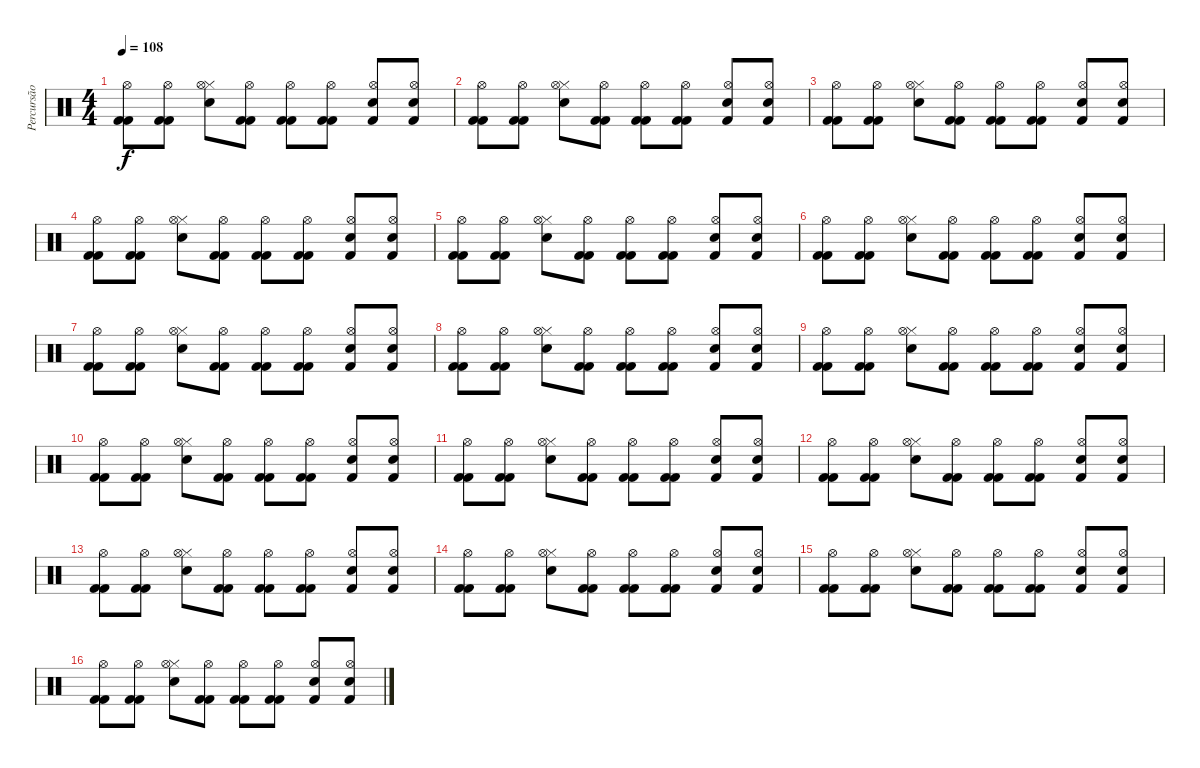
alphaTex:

\track ("Percursão" "Percursão") {instrument percussion}
\staff {score}
\articulation defaults
\ts (4 4)
\tempo 108
\clef neutral
\ks c
("Kick (hit) 2" "Kick (hit) 2" "Hi-Hat (open)").8{dy f} ("Kick (hit) 2" "Kick (hit) 2" "Hi-Hat (open)").8 ("Hi-Hat (closed)" "Snare (hit) 2" "Hi-Hat (open)").8 ("Kick (hit) 2" "Kick (hit) 2" "Hi-Hat (open)").8 ("Kick (hit) 2" "Kick (hit) 2" "Hi-Hat (open)").8 ("Kick (hit) 2" "Kick (hit) 2" "Hi-Hat (open)").8 ("Hi-Hat (open)" "Snare (hit) 2" "Kick (hit) 2").8 ("Hi-Hat (open)" "Snare (hit) 2" "Kick (hit) 2").8 |
("Kick (hit) 2" "Kick (hit) 2" "Hi-Hat (open)").8 ("Kick (hit) 2" "Kick (hit) 2" "Hi-Hat (open)").8 ("Hi-Hat (closed)" "Snare (hit) 2" "Hi-Hat (open)").8 ("Kick (hit) 2" "Kick (hit) 2" "Hi-Hat (open)").8 ("Kick (hit) 2" "Kick (hit) 2" "Hi-Hat (open)").8 ("Kick (hit) 2" "Kick (hit) 2" "Hi-Hat (open)").8 ("Hi-Hat (open)" "Snare (hit) 2" "Kick (hit) 2").8 ("Hi-Hat (open)" "Snare (hit) 2" "Kick (hit) 2").8 |
("Kick (hit) 2" "Kick (hit) 2" "Hi-Hat (open)").8 ("Kick (hit) 2" "Kick (hit) 2" "Hi-Hat (open)").8 ("Hi-Hat (closed)" "Snare (hit) 2" "Hi-Hat (open)").8 ("Kick (hit) 2" "Kick (hit) 2" "Hi-Hat (open)").8 ("Kick (hit) 2" "Kick (hit) 2" "Hi-Hat (open)").8 ("Kick (hit) 2" "Kick (hit) 2" "Hi-Hat (open)").8 ("Hi-Hat (open)" "Snare (hit) 2" "Kick (hit) 2").8 ("Hi-Hat (open)" "Snare (hit) 2" "Kick (hit) 2").8 |
("Kick (hit) 2" "Kick (hit) 2" "Hi-Hat (open)").8 ("Kick (hit) 2" "Kick (hit) 2" "Hi-Hat (open)").8 ("Hi-Hat (closed)" "Snare (hit) 2" "Hi-Hat (open)").8 ("Kick (hit) 2" "Kick (hit) 2" "Hi-Hat (open)").8 ("Kick (hit) 2" "Kick (hit) 2" "Hi-Hat (open)").8 ("Kick (hit) 2" "Kick (hit) 2" "Hi-Hat (open)").8 ("Hi-Hat (open)" "Snare (hit) 2" "Kick (hit) 2").8 ("Hi-Hat (open)" "Snare (hit) 2" "Kick (hit) 2").8 |
("Kick (hit) 2" "Kick (hit) 2" "Hi-Hat (open)").8 ("Kick (hit) 2" "Kick (hit) 2" "Hi-Hat (open)").8 ("Hi-Hat (closed)" "Snare (hit) 2" "Hi-Hat (open)").8 ("Kick (hit) 2" "Kick (hit) 2" "Hi-Hat (open)").8 ("Kick (hit) 2" "Kick (hit) 2" "Hi-Hat (open)").8 ("Kick (hit) 2" "Kick (hit) 2" "Hi-Hat (open)").8 ("Hi-Hat (open)" "Snare (hit) 2" "Kick (hit) 2").8 ("Hi-Hat (open)" "Snare (hit) 2" "Kick (hit) 2").8 |
("Kick (hit) 2" "Kick (hit) 2" "Hi-Hat (open)").8 ("Kick (hit) 2" "Kick (hit) 2" "Hi-Hat (open)").8 ("Hi-Hat (closed)" "Snare (hit) 2" "Hi-Hat (open)").8 ("Kick (hit) 2" "Kick (hit) 2" "Hi-Hat (open)").8 ("Kick (hit) 2" "Kick (hit) 2" "Hi-Hat (open)").8 ("Kick (hit) 2" "Kick (hit) 2" "Hi-Hat (open)").8 ("Hi-Hat (open)" "Snare (hit) 2" "Kick (hit) 2").8 ("Hi-Hat (open)" "Snare (hit) 2" "Kick (hit) 2").8 |
("Kick (hit) 2" "Kick (hit) 2" "Hi-Hat (open)").8 ("Kick (hit) 2" "Kick (hit) 2" "Hi-Hat (open)").8 ("Hi-Hat (closed)" "Snare (hit) 2" "Hi-Hat (open)").8 ("Kick (hit) 2" "Kick (hit) 2" "Hi-Hat (open)").8 ("Kick (hit) 2" "Kick (hit) 2" "Hi-Hat (open)").8 ("Kick (hit) 2" "Kick (hit) 2" "Hi-Hat (open)").8 ("Hi-Hat (open)" "Snare (hit) 2" "Kick (hit) 2").8 ("Hi-Hat (open)" "Snare (hit) 2" "Kick (hit) 2").8 |
("Kick (hit) 2" "Kick (hit) 2" "Hi-Hat (open)").8 ("Kick (hit) 2" "Kick (hit) 2" "Hi-Hat (open)").8 ("Hi-Hat (closed)" "Snare (hit) 2" "Hi-Hat (open)").8 ("Kick (hit) 2" "Kick (hit) 2" "Hi-Hat (open)").8 ("Kick (hit) 2" "Kick (hit) 2" "Hi-Hat (open)").8 ("Kick (hit) 2" "Kick (hit) 2" "Hi-Hat (open)").8 ("Hi-Hat (open)" "Snare (hit) 2" "Kick (hit) 2").8 ("Hi-Hat (open)" "Snare (hit) 2" "Kick (hit) 2").8 |
("Kick (hit) 2" "Kick (hit) 2" "Hi-Hat (open)").8 ("Kick (hit) 2" "Kick (hit) 2" "Hi-Hat (open)").8 ("Hi-Hat (closed)" "Snare (hit) 2" "Hi-Hat (open)").8 ("Kick (hit) 2" "Kick (hit) 2" "Hi-Hat (open)").8 ("Kick (hit) 2" "Kick (hit) 2" "Hi-Hat (open)").8 ("Kick (hit) 2" "Kick (hit) 2" "Hi-Hat (open)").8 ("Hi-Hat (open)" "Snare (hit) 2" "Kick (hit) 2").8 ("Hi-Hat (open)" "Snare (hit) 2" "Kick (hit) 2").8 |
("Kick (hit) 2" "Kick (hit) 2" "Hi-Hat (open)").8 ("Kick (hit) 2" "Kick (hit) 2" "Hi-Hat (open)").8 ("Hi-Hat (closed)" "Snare (hit) 2" "Hi-Hat (open)").8 ("Kick (hit) 2" "Kick (hit) 2" "Hi-Hat (open)").8 ("Kick (hit) 2" "Kick (hit) 2" "Hi-Hat (open)").8 ("Kick (hit) 2" "Kick (hit) 2" "Hi-Hat (open)").8 ("Hi-Hat (open)" "Snare (hit) 2" "Kick (hit) 2").8 ("Hi-Hat (open)" "Snare (hit) 2" "Kick (hit) 2").8 |
("Kick (hit) 2" "Kick (hit) 2" "Hi-Hat (open)").8 ("Kick (hit) 2" "Kick (hit) 2" "Hi-Hat (open)").8 ("Hi-Hat (closed)" "Snare (hit) 2" "Hi-Hat (open)").8 ("Kick (hit) 2" "Kick (hit) 2" "Hi-Hat (open)").8 ("Kick (hit) 2" "Kick (hit) 2" "Hi-Hat (open)").8 ("Kick (hit) 2" "Kick (hit) 2" "Hi-Hat (open)").8 ("Hi-Hat (open)" "Snare (hit) 2" "Kick (hit) 2").8 ("Hi-Hat (open)" "Snare (hit) 2" "Kick (hit) 2").8 |
("Kick (hit) 2" "Kick (hit) 2" "Hi-Hat (open)").8 ("Kick (hit) 2" "Kick (hit) 2" "Hi-Hat (open)").8 ("Hi-Hat (closed)" "Snare (hit) 2" "Hi-Hat (open)").8 ("Kick (hit) 2" "Kick (hit) 2" "Hi-Hat (open)").8 ("Kick (hit) 2" "Kick (hit) 2" "Hi-Hat (open)").8 ("Kick (hit) 2" "Kick (hit) 2" "Hi-Hat (open)").8 ("Hi-Hat (open)" "Snare (hit) 2" "Kick (hit) 2").8 ("Hi-Hat (open)" "Snare (hit) 2" "Kick (hit) 2").8 |
("Kick (hit) 2" "Kick (hit) 2" "Hi-Hat (open)").8 ("Kick (hit) 2" "Kick (hit) 2" "Hi-Hat (open)").8 ("Hi-Hat (closed)" "Snare (hit) 2" "Hi-Hat (open)").8 ("Kick (hit) 2" "Kick (hit) 2" "Hi-Hat (open)").8 ("Kick (hit) 2" "Kick (hit) 2" "Hi-Hat (open)").8 ("Kick (hit) 2" "Kick (hit) 2" "Hi-Hat (open)").8 ("Hi-Hat (open)" "Snare (hit) 2" "Kick (hit) 2").8 ("Hi-Hat (open)" "Snare (hit) 2" "Kick (hit) 2").8 |
("Kick (hit) 2" "Kick (hit) 2" "Hi-Hat (open)").8 ("Kick (hit) 2" "Kick (hit) 2" "Hi-Hat (open)").8 ("Hi-Hat (closed)" "Snare (hit) 2" "Hi-Hat (open)").8 ("Kick (hit) 2" "Kick (hit) 2" "Hi-Hat (open)").8 ("Kick (hit) 2" "Kick (hit) 2" "Hi-Hat (open)").8 ("Kick (hit) 2" "Kick (hit) 2" "Hi-Hat (open)").8 ("Hi-Hat (open)" "Snare (hit) 2" "Kick (hit) 2").8 ("Hi-Hat (open)" "Snare (hit) 2" "Kick (hit) 2").8 |
("Kick (hit) 2" "Kick (hit) 2" "Hi-Hat (open)").8 ("Kick (hit) 2" "Kick (hit) 2" "Hi-Hat (open)").8 ("Hi-Hat (closed)" "Snare (hit) 2" "Hi-Hat (open)").8 ("Kick (hit) 2" "Kick (hit) 2" "Hi-Hat (open)").8 ("Kick (hit) 2" "Kick (hit) 2" "Hi-Hat (open)").8 ("Kick (hit) 2" "Kick (hit) 2" "Hi-Hat (open)").8 ("Hi-Hat (open)" "Snare (hit) 2" "Kick (hit) 2").8 ("Hi-Hat (open)" "Snare (hit) 2" "Kick (hit) 2").8 |
("Kick (hit) 2" "Kick (hit) 2" "Hi-Hat (open)").8 ("Kick (hit) 2" "Kick (hit) 2" "Hi-Hat (open)").8 ("Hi-Hat (closed)" "Snare (hit) 2" "Hi-Hat (open)").8 ("Kick (hit) 2" "Kick (hit) 2" "Hi-Hat (open)").8 ("Kick (hit) 2" "Kick (hit) 2" "Hi-Hat (open)").8 ("Kick (hit) 2" "Kick (hit) 2" "Hi-Hat (open)").8 ("Hi-Hat (open)" "Snare (hit) 2" "Kick (hit) 2").8 ("Hi-Hat (open)" "Snare (hit) 2" "Kick (hit) 2").8
